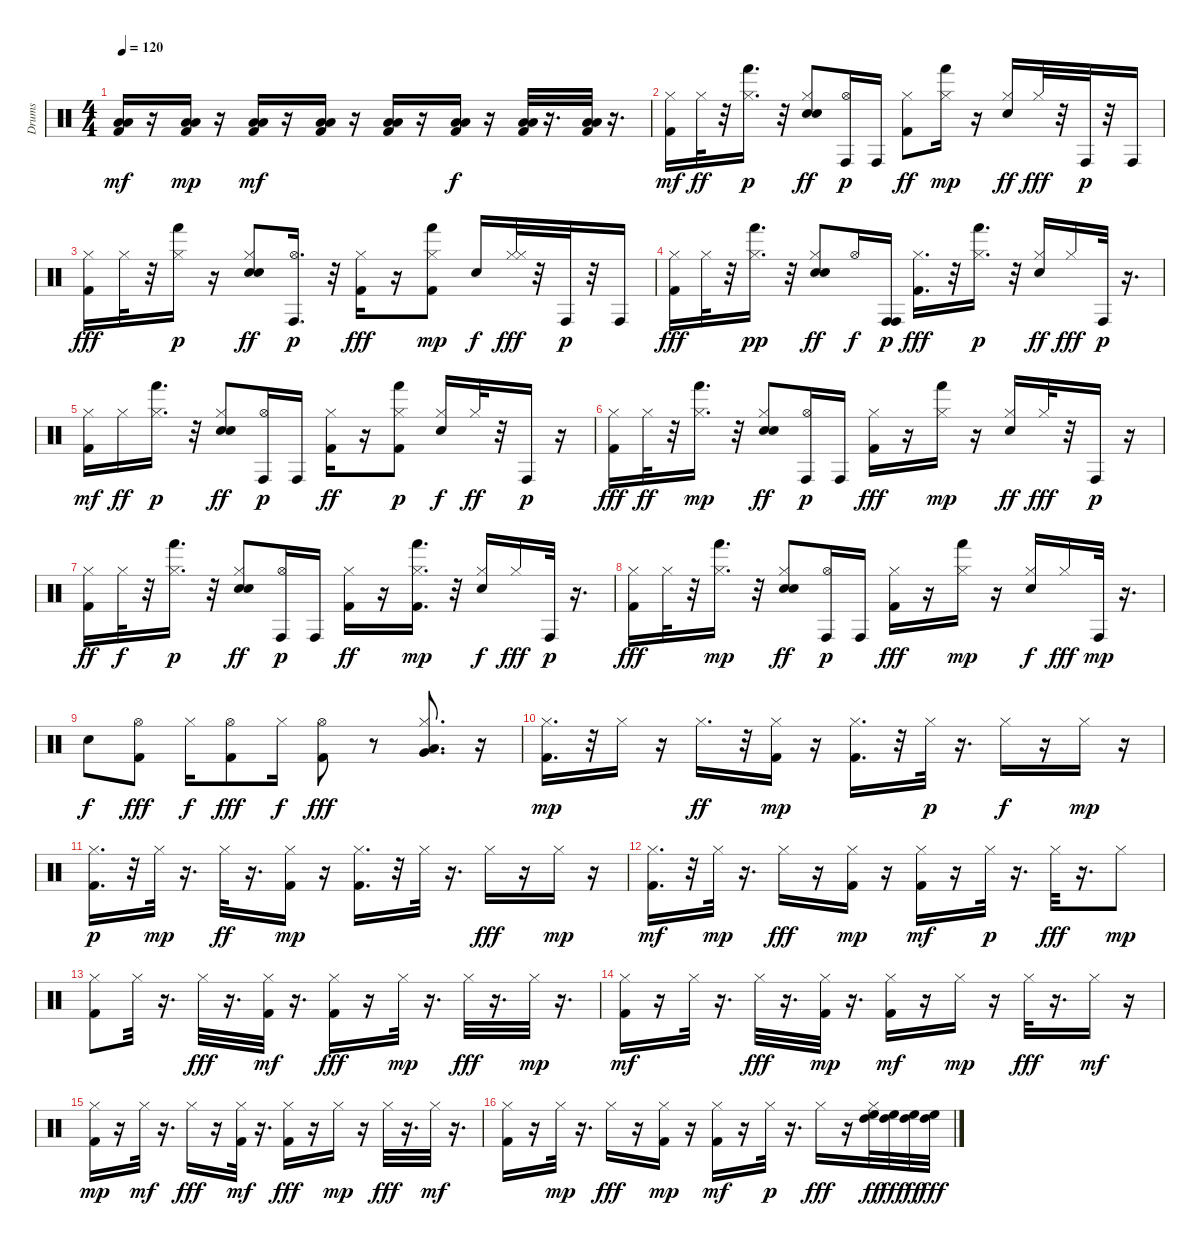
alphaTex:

\track ("Drums" "Drums") {instrument percussion}
\staff {score}
\articulation defaults
\ts (4 4)
\tempo 120
\clef neutral
\ks c
("Kick (hit) 2" "Low Tom (hit)" "Low Floor Tom (hit)").16{dy mf} r.16 ("Kick (hit) 2" "Low Floor Tom (hit)" "Low Tom (hit)").16{dy mp} r.16 ("Kick (hit) 2" "Low Tom (hit)" "Low Floor Tom (hit)").16{dy mf} r.16 ("Kick (hit) 2" "Low Floor Tom (hit)" "Low Tom (hit)").16 r.16 ("Kick (hit) 2" "Low Tom (hit)" "Low Floor Tom (hit)").16 r.16 ("Kick (hit) 2" "Low Tom (hit)" "Low Floor Tom (hit)").16{dy f} r.16 ("Kick (hit) 2" "Low Tom (hit)" "Low Floor Tom (hit)").32 r.16{d} ("Kick (hit) 2" "Low Tom (hit)" "Low Floor Tom (hit)").32 r.16{d} |
("Kick (hit) 2" "Hi-Hat (closed)").16{dy mf} "Hi-Hat (closed)".32{dy ff} r.32 ("Hi-Hat (closed)" "Hand (hit)").16{d dy p} r.32 ("Hi-Hat (closed)" "Hand Clap (hit)" "Electric Snare (hit)").8{dy ff} ("Hi-Hat (open)" "Conga high (hit)").16{dy p} "Conga high (hit)".16 ("Kick (hit) 2" "Hi-Hat (closed)").8{dy ff} ("Hi-Hat (closed)" "Hand (hit)").16{dy mp} r.16 ("Hi-Hat (closed)" "Electric Snare (hit)").16{dy ff} "Hi-Hat (closed)".32{dy fff} r.32 "Conga high (hit)".32{dy p} r.32 "Conga high (hit)".16 |
("Kick (hit) 2" "Hi-Hat (closed)").16{dy fff} "Hi-Hat (closed)".32 r.32 ("Hi-Hat (closed)" "Hand (hit)").16{dy p} r.16 ("Hi-Hat (closed)" "Electric Snare (hit)" "Hand Clap (hit)").8{dy ff} ("Hi-Hat (open)" "Conga high (hit)").16{d dy p} r.32 ("Kick (hit) 2" "Hi-Hat (closed)").16{dy fff} r.16 ("Kick (hit) 2" "Hi-Hat (closed)" "Hand (hit)").8{dy mp} "Electric Snare (hit)".16{dy f} ("Hi-Hat (closed)" "Hi-Hat (closed)").32{dy fff} r.32 "Conga high (hit)".32{dy p} r.32 "Conga high (hit)".16 |
("Kick (hit) 2" "Hi-Hat (closed)").16{dy fff} "Hi-Hat (closed)".32 r.32 ("Hi-Hat (closed)" "Hand (hit)").16{d dy pp} r.32 ("Hi-Hat (closed)" "Electric Snare (hit)" "Hand Clap (hit)").8{dy ff} "Hi-Hat (open)".16{dy f} ("Conga high (hit)" "Conga high (hit)").16{dy p} ("Kick (hit) 2" "Hi-Hat (closed)").16{d dy fff} r.32 ("Hi-Hat (closed)" "Hand (hit)").16{d dy p} r.32 ("Hi-Hat (closed)" "Electric Snare (hit)").16{dy ff} "Hi-Hat (closed)".16{dy fff} "Conga high (hit)".32{dy p} r.16{d} |
("Kick (hit) 2" "Hi-Hat (closed)").16{dy mf} "Hi-Hat (closed)".16{dy ff} ("Hi-Hat (closed)" "Hand (hit)").16{d dy p} r.32 ("Hi-Hat (closed)" "Electric Snare (hit)" "Hand Clap (hit)").8{dy ff} ("Hi-Hat (open)" "Conga high (hit)").16{dy p} "Conga high (hit)".16 ("Kick (hit) 2" "Hi-Hat (closed)").16{dy ff} r.16 ("Kick (hit) 2" "Hi-Hat (closed)" "Hand (hit)").8{dy p} ("Hi-Hat (closed)" "Electric Snare (hit)").16{dy f} "Hi-Hat (closed)".32{dy ff} r.32 "Conga high (hit)".16{dy p} r.16 |
("Kick (hit) 2" "Hi-Hat (closed)").16{dy fff} "Hi-Hat (closed)".32{dy ff} r.32 ("Hi-Hat (closed)" "Hand (hit)").16{d dy mp} r.32 ("Hi-Hat (closed)" "Electric Snare (hit)" "Hand Clap (hit)").8{dy ff} ("Hi-Hat (open)" "Conga high (hit)").16{dy p} "Conga high (hit)".16 ("Kick (hit) 2" "Hi-Hat (closed)").16{dy fff} r.16 ("Hi-Hat (closed)" "Hand (hit)").16{dy mp} r.16 ("Hi-Hat (closed)" "Electric Snare (hit)").16{dy ff} "Hi-Hat (closed)".32{dy fff} r.32 "Conga high (hit)".16{dy p} r.16 |
("Kick (hit) 2" "Hi-Hat (closed)").16{dy ff} "Hi-Hat (closed)".32{dy f} r.32 ("Hi-Hat (closed)" "Hand (hit)").16{d dy p} r.32 ("Hi-Hat (closed)" "Hand Clap (hit)" "Electric Snare (hit)").8{dy ff} ("Hi-Hat (open)" "Conga high (hit)").16{dy p} "Conga high (hit)".16 ("Kick (hit) 2" "Hi-Hat (closed)").16{dy ff} r.16 ("Kick (hit) 2" "Hi-Hat (closed)" "Hand (hit)").16{d dy mp} r.32 ("Hi-Hat (closed)" "Electric Snare (hit)").16{dy f} "Hi-Hat (closed)".16{dy fff} "Conga high (hit)".32{dy p} r.16{d} |
("Kick (hit) 2" "Hi-Hat (closed)").16{dy fff} "Hi-Hat (closed)".32 r.32 ("Hi-Hat (closed)" "Hand (hit)").16{d dy mp} r.32 ("Hi-Hat (closed)" "Electric Snare (hit)" "Hand Clap (hit)").8{dy ff} ("Hi-Hat (open)" "Conga high (hit)").16{dy p} "Conga high (hit)".16 ("Kick (hit) 2" "Hi-Hat (closed)").16{dy fff} r.16 ("Hi-Hat (closed)" "Hand (hit)").16{dy mp} r.16 ("Hi-Hat (closed)" "Electric Snare (hit)").16{dy f} "Hi-Hat (closed)".16{dy fff} "Conga high (hit)".32{dy mp} r.16{d} |
"Electric Snare (hit)".8{dy f} ("Kick (hit) 2" "Hi-Hat (open)").8{dy fff} "Hi-Hat (closed)".16{dy f} ("Kick (hit) 2" "Hi-Hat (open)").8{dy fff} "Hi-Hat (closed)".16{dy f} ("Hi-Hat (open)" "Kick (hit) 2").8{dy fff} r.8 ("Low Floor Tom (hit)" "Hi-Hat (closed)" "Very Low Tom (hit)").8{d} r.16 |
("Kick (hit) 2" "Hi-Hat (closed)").16{d dy mp} r.32 "Hi-Hat (closed)".16 r.16 "Hi-Hat (closed)".16{d dy ff} r.32 ("Kick (hit) 2" "Hi-Hat (closed)").16{dy mp} r.16 ("Kick (hit) 2" "Hi-Hat (closed)").16{d} r.32 "Hi-Hat (closed)".32{dy p} r.16{d} "Hi-Hat (closed)".16{dy f} r.16 "Hi-Hat (closed)".16{dy mp} r.16 |
("Kick (hit) 2" "Hi-Hat (closed)").16{d dy p} r.32 "Hi-Hat (closed)".32{dy mp} r.16{d} "Hi-Hat (closed)".32{dy ff} r.16{d} ("Kick (hit) 2" "Hi-Hat (closed)").16{dy mp} r.16 ("Kick (hit) 2" "Hi-Hat (closed)").16{d} r.32 "Hi-Hat (closed)".32 r.16{d} "Hi-Hat (closed)".16{dy fff} r.16 "Hi-Hat (closed)".16{dy mp} r.16 |
("Kick (hit) 2" "Hi-Hat (closed)").16{d dy mf} r.32 "Hi-Hat (closed)".32{dy mp} r.16{d} "Hi-Hat (closed)".16{dy fff} r.16 ("Kick (hit) 2" "Hi-Hat (closed)").16{dy mp} r.16 ("Kick (hit) 2" "Hi-Hat (closed)").16{dy mf} r.16 "Hi-Hat (closed)".32{dy p} r.16{d} "Hi-Hat (closed)".32{dy fff} r.16{d} "Hi-Hat (closed)".8{dy mp} |
("Kick (hit) 2" "Hi-Hat (closed)").8 "Hi-Hat (closed)".32 r.16{d} "Hi-Hat (closed)".32{dy fff} r.16{d} ("Kick (hit) 2" "Hi-Hat (closed)").32{dy mf} r.16{d} ("Kick (hit) 2" "Hi-Hat (closed)").16{dy fff} r.16 "Hi-Hat (closed)".32{dy mp} r.16{d} "Hi-Hat (closed)".32{dy fff} r.16{d} "Hi-Hat (closed)".32{dy mp} r.16{d} |
("Kick (hit) 2" "Hi-Hat (closed)").16{dy mf} r.16 "Hi-Hat (closed)".32 r.16{d} "Hi-Hat (closed)".32{dy fff} r.16{d} ("Kick (hit) 2" "Hi-Hat (closed)").32{dy mp} r.16{d} ("Kick (hit) 2" "Hi-Hat (closed)").16{dy mf} r.16 "Hi-Hat (closed)".16{dy mp} r.16 "Hi-Hat (closed)".32{dy fff} r.16{d} "Hi-Hat (closed)".16{dy mf} r.16 |
("Kick (hit) 2" "Hi-Hat (closed)").16{dy mp} r.16 "Hi-Hat (closed)".32{dy mf} r.16{d} "Hi-Hat (closed)".16{dy fff} r.16 ("Kick (hit) 2" "Hi-Hat (closed)").32{dy mf} r.16{d} ("Kick (hit) 2" "Hi-Hat (closed)").16{dy fff} r.16 "Hi-Hat (closed)".16{dy mp} r.16 "Hi-Hat (closed)".32{dy fff} r.16{d} "Hi-Hat (closed)".32{dy mf} r.16{d} |
("Kick (hit) 2" "Hi-Hat (closed)").16 r.16 "Hi-Hat (closed)".32{dy mp} r.16{d} "Hi-Hat (closed)".16{dy fff} r.16 ("Kick (hit) 2" "Hi-Hat (closed)").16{dy mp} r.16 ("Kick (hit) 2" "Hi-Hat (closed)").16{dy mf} r.16 "Hi-Hat (closed)".32{dy p} r.16{d} "Hi-Hat (closed)".16{dy fff} r.16 ("High Tom (hit)" "Hi-Hat (closed)" "High Floor Tom (hit)").32{dy ff} ("High Tom (hit)" "High Floor Tom (hit)").32{dy fff} ("High Tom (hit)" "High Floor Tom (hit)").32{dy ff} ("High Tom (hit)" "High Floor Tom (hit)").32{dy fff}
